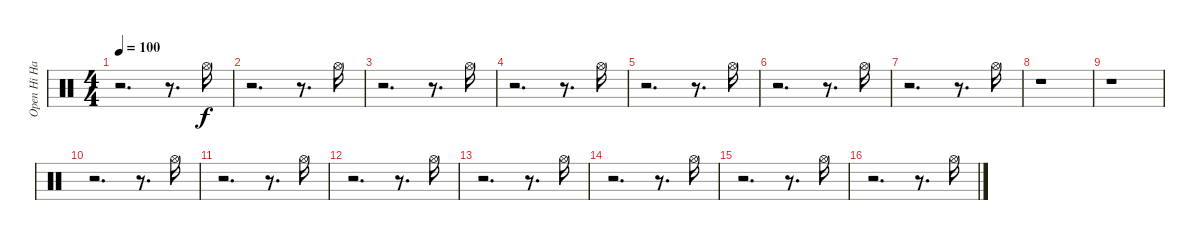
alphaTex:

\track ("Open Hi Hat" "Open Hi Ha") {instrument percussion}
\staff {score}
\articulation defaults
\ts (4 4)
\tempo 100
\clef neutral
\ks c
r.2{d dy f} r.8{d} "Hi-Hat (open)".16 |
r.2{d} r.8{d} "Hi-Hat (open)".16 |
r.2{d} r.8{d} "Hi-Hat (open)".16 |
r.2{d} r.8{d} "Hi-Hat (open)".16 |
r.2{d} r.8{d} "Hi-Hat (open)".16 |
r.2{d} r.8{d} "Hi-Hat (open)".16 |
r.2{d} r.8{d} "Hi-Hat (open)".16 |
r.1 |
r.1 |
r.2{d} r.8{d} "Hi-Hat (open)".16 |
r.2{d} r.8{d} "Hi-Hat (open)".16 |
r.2{d} r.8{d} "Hi-Hat (open)".16 |
r.2{d} r.8{d} "Hi-Hat (open)".16 |
r.2{d} r.8{d} "Hi-Hat (open)".16 |
r.2{d} r.8{d} "Hi-Hat (open)".16 |
r.2{d} r.8{d} "Hi-Hat (open)".16
